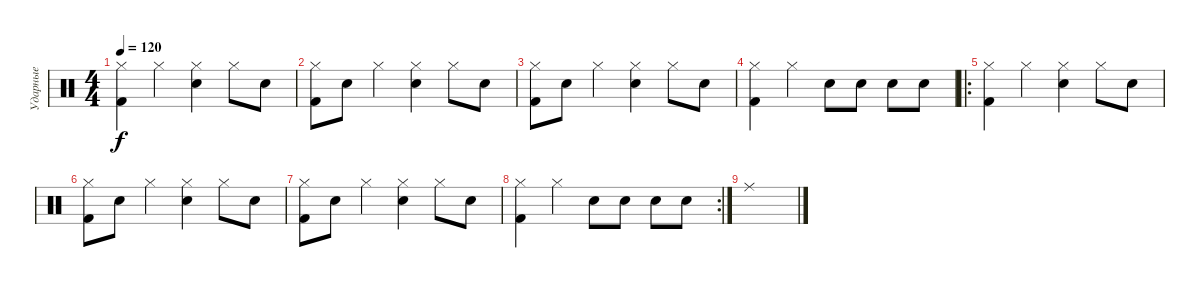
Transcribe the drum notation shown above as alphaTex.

\track ("Ударные" "Ударные") {instrument percussion}
\staff {score}
\articulation defaults
\ts (4 4)
\tempo 120
\clef neutral
\ks c
("Kick (hit) 2" "Hi-Hat (closed)").4{dy f} "Hi-Hat (closed)".4 ("Electric Snare (hit)" "Hi-Hat (closed)").4 "Hi-Hat (closed)".8 "Electric Snare (hit)".8 |
("Kick (hit) 2" "Hi-Hat (closed)").8 "Electric Snare (hit)".8 "Hi-Hat (closed)".4 ("Hi-Hat (closed)" "Electric Snare (hit)").4 "Hi-Hat (closed)".8 "Electric Snare (hit)".8 |
("Kick (hit) 2" "Hi-Hat (closed)").8 "Electric Snare (hit)".8 "Hi-Hat (closed)".4 ("Hi-Hat (closed)" "Electric Snare (hit)").4 "Hi-Hat (closed)".8 "Electric Snare (hit)".8 |
("Kick (hit) 2" "Hi-Hat (closed)").4 "Hi-Hat (closed)".4 "Electric Snare (hit)".8 "Electric Snare (hit)".8 "Electric Snare (hit)".8 "Electric Snare (hit)".8 |
\ro
("Kick (hit) 2" "Hi-Hat (closed)").4 "Hi-Hat (closed)".4 ("Electric Snare (hit)" "Hi-Hat (closed)").4 "Hi-Hat (closed)".8 "Electric Snare (hit)".8 |
("Kick (hit) 2" "Hi-Hat (closed)").8 "Electric Snare (hit)".8 "Hi-Hat (closed)".4 ("Hi-Hat (closed)" "Electric Snare (hit)").4 "Hi-Hat (closed)".8 "Electric Snare (hit)".8 |
("Kick (hit) 2" "Hi-Hat (closed)").8 "Electric Snare (hit)".8 "Hi-Hat (closed)".4 ("Hi-Hat (closed)" "Electric Snare (hit)").4 "Hi-Hat (closed)".8 "Electric Snare (hit)".8 |
\rc 2
("Kick (hit) 2" "Hi-Hat (closed)").4 "Hi-Hat (closed)".4 "Electric Snare (hit)".8 "Electric Snare (hit)".8 "Electric Snare (hit)".8 "Electric Snare (hit)".8 |
"Ride (middle)".1
